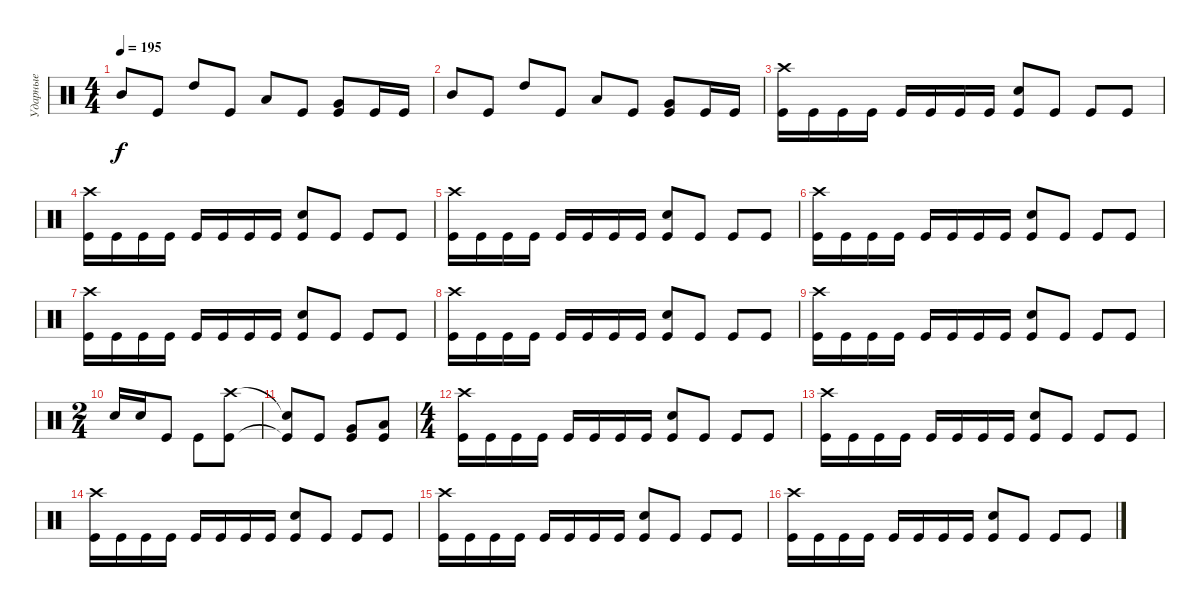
\track ("Ударные" "Ударные") {instrument percussion}
\staff {score}
\articulation defaults
\ts (4 4)
\tempo 195
\clef neutral
\ks c "Mid Tom (hit)".8{dy f} "Kick (hit)".8 "High Tom (hit)".8 "Kick (hit)".8 "Low Tom (hit)".8 "Kick (hit)".8
("Very Low Tom (hit)" "Kick (hit)").8 "Kick (hit)".16 "Kick (hit)".16 |
"Mid Tom (hit)".8 "Kick (hit)".8 "High Tom (hit)".8 "Kick (hit)".8 "Low Tom (hit)".8 "Kick (hit)".8 ("Very Low Tom (hit)" "Kick (hit)").8 "Kick (hit)".16 "Kick (hit)".16 |
("Crash high (hit)" "Kick (hit)").16 "Kick (hit)".16 "Kick (hit)".16 "Kick (hit)".16 "Kick (hit)".16 "Kick (hit)".16 "Kick (hit)".16 "Kick (hit)".16 ("Electric Snare (hit)" "Kick (hit)").8 "Kick (hit)".8 "Kick (hit)".8 "Kick (hit)".8 |
("Crash high (hit)" "Kick (hit)").16 "Kick (hit)".16 "Kick (hit)".16 "Kick (hit)".16 "Kick (hit)".16 "Kick (hit)".16 "Kick (hit)".16 "Kick (hit)".16 ("Electric Snare (hit)" "Kick (hit)").8 "Kick (hit)".8 "Kick (hit)".8 "Kick (hit)".8 |
("Crash high (hit)" "Kick (hit)").16 "Kick (hit)".16 "Kick (hit)".16 "Kick (hit)".16 "Kick (hit)".16 "Kick (hit)".16 "Kick (hit)".16 "Kick (hit)".16 ("Electric Snare (hit)" "Kick (hit)").8 "Kick (hit)".8 "Kick (hit)".8 "Kick (hit)".8 |
("Crash high (hit)" "Kick (hit)").16 "Kick (hit)".16 "Kick (hit)".16 "Kick (hit)".16 "Kick (hit)".16 "Kick (hit)".16 "Kick (hit)".16 "Kick (hit)".16 ("Electric Snare (hit)" "Kick (hit)").8 "Kick (hit)".8 "Kick (hit)".8 "Kick (hit)".8 |
("Crash high (hit)" "Kick (hit)").16 "Kick (hit)".16 "Kick (hit)".16 "Kick (hit)".16 "Kick (hit)".16 "Kick (hit)".16 "Kick (hit)".16 "Kick (hit)".16 ("Electric Snare (hit)" "Kick (hit)").8 "Kick (hit)".8 "Kick (hit)".8 "Kick (hit)".8 |
("Crash high (hit)" "Kick (hit)").16 "Kick (hit)".16 "Kick (hit)".16 "Kick (hit)".16 "Kick (hit)".16 "Kick (hit)".16 "Kick (hit)".16 "Kick (hit)".16 ("Electric Snare (hit)" "Kick (hit)").8 "Kick (hit)".8 "Kick (hit)".8 "Kick (hit)".8 |
("Crash high (hit)" "Kick (hit)").16 "Kick (hit)".16 "Kick (hit)".16 "Kick (hit)".16 "Kick (hit)".16 "Kick (hit)".16 "Kick (hit)".16 "Kick (hit)".16 ("Electric Snare (hit)" "Kick (hit)").8 "Kick (hit)".8 "Kick (hit)".8 "Kick (hit)".8 |
\ts (2 4)
"Electric Snare (hit)".16 "Electric Snare (hit)".16 "Kick (hit)".8 "Kick (hit)".8 ("Crash high (hit)" "Kick (hit)").8 |
("Snare (hit)"{t} "Kick (hit)"{t}).8 "Kick (hit)".8 ("Very Low Tom (hit)" "Kick (hit)").8 ("Low Tom (hit)" "Kick (hit)").8 |
\ts (4 4)
("Crash high (hit)" "Kick (hit)").16 "Kick (hit)".16 "Kick (hit)".16 "Kick (hit)".16 "Kick (hit)".16 "Kick (hit)".16 "Kick (hit)".16 "Kick (hit)".16 ("Electric Snare (hit)" "Kick (hit)").8 "Kick (hit)".8 "Kick (hit)".8 "Kick (hit)".8 |
("Crash high (hit)" "Kick (hit)").16 "Kick (hit)".16 "Kick (hit)".16 "Kick (hit)".16 "Kick (hit)".16 "Kick (hit)".16 "Kick (hit)".16 "Kick (hit)".16 ("Electric Snare (hit)" "Kick (hit)").8 "Kick (hit)".8 "Kick (hit)".8 "Kick (hit)".8 |
("Crash high (hit)" "Kick (hit)").16 "Kick (hit)".16 "Kick (hit)".16 "Kick (hit)".16 "Kick (hit)".16 "Kick (hit)".16 "Kick (hit)".16 "Kick (hit)".16 ("Electric Snare (hit)" "Kick (hit)").8 "Kick (hit)".8 "Kick (hit)".8 "Kick (hit)".8 |
("Crash high (hit)" "Kick (hit)").16 "Kick (hit)".16 "Kick (hit)".16 "Kick (hit)".16 "Kick (hit)".16 "Kick (hit)".16 "Kick (hit)".16 "Kick (hit)".16 ("Electric Snare (hit)" "Kick (hit)").8 "Kick (hit)".8 "Kick (hit)".8 "Kick (hit)".8 |
("Crash high (hit)" "Kick (hit)").16 "Kick (hit)".16 "Kick (hit)".16 "Kick (hit)".16 "Kick (hit)".16 "Kick (hit)".16 "Kick (hit)".16 "Kick (hit)".16 ("Electric Snare (hit)" "Kick (hit)").8 "Kick (hit)".8 "Kick (hit)".8 "Kick (hit)".8
